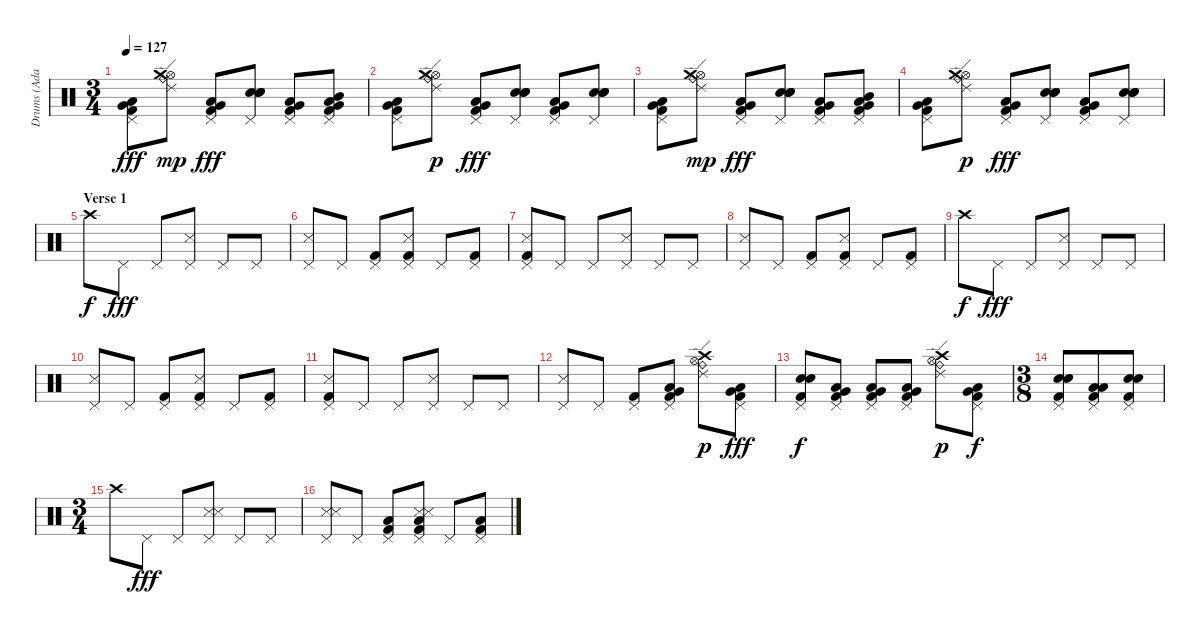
\track ("Drums (Adam)" "Drums (Ada") {instrument percussion}
\staff {score}
\articulation defaults
\ts (3 4)
\tempo 127
\clef neutral
\ks c
("Pedal Hi-Hat (hit)" "Very Low Tom (hit)" "Low Tom (hit)" "Kick (hit) 2").8{dy fff} ("Ride (edge) 2" "Hi-Hat (open)" "Ride (bell)" "Crash medium (hit)").8{dy mp} ("Pedal Hi-Hat (hit)" "Very Low Tom (hit)" "Low Tom (hit)" "Kick (hit) 2").8{dy fff} ("Pedal Hi-Hat (hit)" "Electric Snare (hit)" "Electric Snare (hit)" "Snare (hit) 2").8 ("Pedal Hi-Hat (hit)" "Very Low Tom (hit)" "Low Tom (hit)" "Kick (hit) 2").8 ("Pedal Hi-Hat (hit)" "Mid Tom (hit)" "Very Low Tom (hit)" "Low Tom (hit)" "Kick (hit) 2").8 |
("Pedal Hi-Hat (hit)" "Very Low Tom (hit)" "Low Tom (hit)" "Kick (hit) 2").8 ("Ride (edge) 2" "Hi-Hat (open)" "Ride (bell)" "Crash medium (hit)").8{dy p} ("Pedal Hi-Hat (hit)" "Very Low Tom (hit)" "Low Tom (hit)" "Kick (hit) 2").8{dy fff} ("Pedal Hi-Hat (hit)" "Electric Snare (hit)" "Electric Snare (hit)" "Snare (hit) 2").8 ("Pedal Hi-Hat (hit)" "Very Low Tom (hit)" "Low Tom (hit)" "Kick (hit) 2").8 ("Pedal Hi-Hat (hit)" "Electric Snare (hit)" "Electric Snare (hit)" "Snare (hit) 2").8 |
("Pedal Hi-Hat (hit)" "Very Low Tom (hit)" "Low Tom (hit)" "Kick (hit) 2").8 ("Ride (edge) 2" "Hi-Hat (open)" "Ride (bell)" "Crash medium (hit)").8{dy mp} ("Pedal Hi-Hat (hit)" "Very Low Tom (hit)" "Low Tom (hit)" "Kick (hit) 2").8{dy fff} ("Pedal Hi-Hat (hit)" "Electric Snare (hit)" "Electric Snare (hit)" "Snare (hit) 2").8 ("Pedal Hi-Hat (hit)" "Very Low Tom (hit)" "Low Tom (hit)" "Kick (hit) 2").8 ("Pedal Hi-Hat (hit)" "Mid Tom (hit)" "Very Low Tom (hit)" "Low Tom (hit)" "Kick (hit) 2").8 |
("Pedal Hi-Hat (hit)" "Very Low Tom (hit)" "Low Tom (hit)" "Kick (hit) 2").8 ("Ride (edge) 2" "Hi-Hat (open)" "Ride (bell)" "Crash medium (hit)").8{dy p} ("Pedal Hi-Hat (hit)" "Very Low Tom (hit)" "Low Tom (hit)" "Kick (hit) 2").8{dy fff} ("Pedal Hi-Hat (hit)" "Electric Snare (hit)" "Electric Snare (hit)" "Snare (hit) 2").8 ("Pedal Hi-Hat (hit)" "Very Low Tom (hit)" "Low Tom (hit)" "Kick (hit) 2").8 ("Pedal Hi-Hat (hit)" "Electric Snare (hit)" "Electric Snare (hit)" "Snare (hit) 2").8 |
\section ("" "Verse 1")
"Crash high (hit)".8{dy f} "Pedal Hi-Hat (hit)".8{dy fff} "Pedal Hi-Hat (hit)".8 ("Pedal Hi-Hat (hit)" "Snare (side stick) 3").8 "Pedal Hi-Hat (hit)".8 "Pedal Hi-Hat (hit)".8 |
("Pedal Hi-Hat (hit)" "Snare (side stick) 3").8 "Pedal Hi-Hat (hit)".8 ("Pedal Hi-Hat (hit)" "Kick (hit) 2").8 ("Pedal Hi-Hat (hit)" "Snare (side stick) 3" "Kick (hit) 2").8 "Pedal Hi-Hat (hit)".8 ("Pedal Hi-Hat (hit)" "Kick (hit) 2").8 |
("Pedal Hi-Hat (hit)" "Snare (side stick) 3" "Kick (hit) 2").8 "Pedal Hi-Hat (hit)".8 "Pedal Hi-Hat (hit)".8 ("Pedal Hi-Hat (hit)" "Snare (side stick) 3").8 "Pedal Hi-Hat (hit)".8 "Pedal Hi-Hat (hit)".8 |
("Pedal Hi-Hat (hit)" "Snare (side stick) 3").8 "Pedal Hi-Hat (hit)".8 ("Pedal Hi-Hat (hit)" "Kick (hit) 2").8 ("Pedal Hi-Hat (hit)" "Snare (side stick) 3" "Kick (hit) 2").8 "Pedal Hi-Hat (hit)".8 ("Pedal Hi-Hat (hit)" "Kick (hit) 2").8 |
"Crash high (hit)".8{dy f} "Pedal Hi-Hat (hit)".8{dy fff} "Pedal Hi-Hat (hit)".8 ("Pedal Hi-Hat (hit)" "Snare (side stick) 3").8 "Pedal Hi-Hat (hit)".8 "Pedal Hi-Hat (hit)".8 |
("Pedal Hi-Hat (hit)" "Snare (side stick) 3").8 "Pedal Hi-Hat (hit)".8 ("Pedal Hi-Hat (hit)" "Kick (hit) 2").8 ("Pedal Hi-Hat (hit)" "Snare (side stick) 3" "Kick (hit) 2").8 "Pedal Hi-Hat (hit)".8 ("Pedal Hi-Hat (hit)" "Kick (hit) 2").8 |
("Pedal Hi-Hat (hit)" "Snare (side stick) 3" "Kick (hit) 2").8 "Pedal Hi-Hat (hit)".8 "Pedal Hi-Hat (hit)".8 ("Pedal Hi-Hat (hit)" "Snare (side stick) 3").8 "Pedal Hi-Hat (hit)".8 "Pedal Hi-Hat (hit)".8 |
("Pedal Hi-Hat (hit)" "Snare (side stick) 3").8 "Pedal Hi-Hat (hit)".8 ("Pedal Hi-Hat (hit)" "Kick (hit) 2").8 ("Pedal Hi-Hat (hit)" "Very Low Tom (hit)" "Low Tom (hit)" "Kick (hit) 2").8 ("Ride (edge) 2" "Hi-Hat (open)" "Ride (bell)" "Crash high (hit)").8{dy p} ("Pedal Hi-Hat (hit)" "Very Low Tom (hit)" "Low Tom (hit)" "Kick (hit) 2").8{dy fff} |
("Pedal Hi-Hat (hit)" "Electric Snare (hit)" "Electric Snare (hit)" "Kick (hit) 2").8{dy f} ("Pedal Hi-Hat (hit)" "Very Low Tom (hit)" "Low Tom (hit)" "Kick (hit) 2").8 ("Pedal Hi-Hat (hit)" "Very Low Tom (hit)" "Low Tom (hit)" "Kick (hit) 2").8 ("Pedal Hi-Hat (hit)" "Very Low Tom (hit)" "Low Tom (hit)" "Kick (hit) 2").8 ("Ride (edge) 2" "Hi-Hat (open)" "Ride (bell)" "Crash high (hit)").8{dy p} ("Pedal Hi-Hat (hit)" "Very Low Tom (hit)" "Low Tom (hit)" "Kick (hit) 2").8{dy f} |
\ts (3 8)
("Pedal Hi-Hat (hit)" "Electric Snare (hit)" "Electric Snare (hit)" "Kick (hit) 2").8 ("Pedal Hi-Hat (hit)" "Low Tom (hit)" "Low Tom (hit)" "Kick (hit) 2").8 ("Pedal Hi-Hat (hit)" "Electric Snare (hit)" "Electric Snare (hit)" "Kick (hit) 2").8 |
\ts (3 4)
"Crash high (hit)".8 "Pedal Hi-Hat (hit)".8{dy fff} "Pedal Hi-Hat (hit)".8 ("Pedal Hi-Hat (hit)" "Snare (side stick) 3" "Snare (side stick) 3").8 "Pedal Hi-Hat (hit)".8 "Pedal Hi-Hat (hit)".8 |
("Pedal Hi-Hat (hit)" "Snare (side stick) 3" "Snare (side stick) 3").8 "Pedal Hi-Hat (hit)".8 ("Pedal Hi-Hat (hit)" "Low Tom (hit)" "Kick (hit) 2").8 ("Pedal Hi-Hat (hit)" "Snare (side stick) 3" "Low Tom (hit)" "Snare (side stick) 3" "Kick (hit) 2").8 "Pedal Hi-Hat (hit)".8 ("Pedal Hi-Hat (hit)" "Low Tom (hit)" "Kick (hit) 2").8
